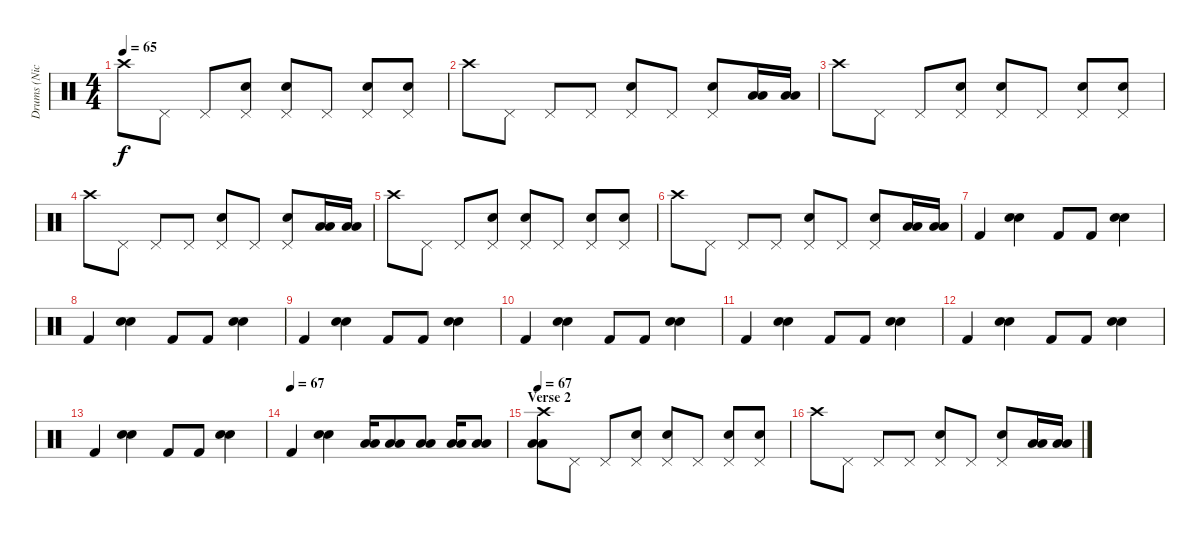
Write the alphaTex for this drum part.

\track ("Drums (Nick)" "Drums (Nic") {instrument percussion}
\staff {score}
\articulation defaults
\ts (4 4)
\tempo 65
\clef neutral
\ks c "Crash high (hit)".8{dy f} "Pedal Hi-Hat (hit)".8 "Pedal Hi-Hat (hit)".8
("Pedal Hi-Hat (hit)" "Electric Snare (hit)").8 ("Pedal Hi-Hat (hit)" "Electric Snare (hit)").8 "Pedal Hi-Hat (hit)".8 ("Pedal Hi-Hat (hit)" "Electric Snare (hit)").8 ("Pedal Hi-Hat (hit)" "Electric Snare (hit)").8 |
"Crash high (hit)".8 "Pedal Hi-Hat (hit)".8 "Pedal Hi-Hat (hit)".8 "Pedal Hi-Hat (hit)".8 ("Pedal Hi-Hat (hit)" "Electric Snare (hit)").8 "Pedal Hi-Hat (hit)".8 ("Pedal Hi-Hat (hit)" "Electric Snare (hit)").8 ("Low Tom (hit)" "Low Tom (hit)").16 ("Low Tom (hit)" "Low Tom (hit)").16 |
"Crash high (hit)".8 "Pedal Hi-Hat (hit)".8 "Pedal Hi-Hat (hit)".8 ("Pedal Hi-Hat (hit)" "Electric Snare (hit)").8 ("Pedal Hi-Hat (hit)" "Electric Snare (hit)").8 "Pedal Hi-Hat (hit)".8 ("Pedal Hi-Hat (hit)" "Electric Snare (hit)").8 ("Pedal Hi-Hat (hit)" "Electric Snare (hit)").8 |
"Crash high (hit)".8 "Pedal Hi-Hat (hit)".8 "Pedal Hi-Hat (hit)".8 "Pedal Hi-Hat (hit)".8 ("Pedal Hi-Hat (hit)" "Electric Snare (hit)").8 "Pedal Hi-Hat (hit)".8 ("Pedal Hi-Hat (hit)" "Electric Snare (hit)").8 ("Low Tom (hit)" "Low Tom (hit)").16 ("Low Tom (hit)" "Low Tom (hit)").16 |
"Crash high (hit)".8 "Pedal Hi-Hat (hit)".8 "Pedal Hi-Hat (hit)".8 ("Pedal Hi-Hat (hit)" "Electric Snare (hit)").8 ("Pedal Hi-Hat (hit)" "Electric Snare (hit)").8 "Pedal Hi-Hat (hit)".8 ("Pedal Hi-Hat (hit)" "Electric Snare (hit)").8 ("Pedal Hi-Hat (hit)" "Electric Snare (hit)").8 |
"Crash high (hit)".8 "Pedal Hi-Hat (hit)".8 "Pedal Hi-Hat (hit)".8 "Pedal Hi-Hat (hit)".8 ("Pedal Hi-Hat (hit)" "Electric Snare (hit)").8 "Pedal Hi-Hat (hit)".8 ("Pedal Hi-Hat (hit)" "Electric Snare (hit)").8 ("Low Tom (hit)" "Low Tom (hit)").16 ("Low Tom (hit)" "Low Tom (hit)").16 |
"Kick (hit) 2".4 ("Snare (hit) 2" "Electric Snare (hit)").4 "Kick (hit) 2".8 "Kick (hit) 2".8 ("Snare (hit) 2" "Electric Snare (hit)").4 |
"Kick (hit) 2".4 ("Snare (hit) 2" "Electric Snare (hit)").4 "Kick (hit) 2".8 "Kick (hit) 2".8 ("Snare (hit) 2" "Electric Snare (hit)").4 |
"Kick (hit) 2".4 ("Snare (hit) 2" "Electric Snare (hit)").4 "Kick (hit) 2".8 "Kick (hit) 2".8 ("Snare (hit) 2" "Electric Snare (hit)").4 |
"Kick (hit) 2".4 ("Snare (hit) 2" "Electric Snare (hit)").4 "Kick (hit) 2".8 "Kick (hit) 2".8 ("Snare (hit) 2" "Electric Snare (hit)").4 |
"Kick (hit) 2".4 ("Snare (hit) 2" "Electric Snare (hit)").4 "Kick (hit) 2".8 "Kick (hit) 2".8 ("Snare (hit) 2" "Electric Snare (hit)").4 |
"Kick (hit) 2".4 ("Snare (hit) 2" "Electric Snare (hit)").4 "Kick (hit) 2".8 "Kick (hit) 2".8 ("Snare (hit) 2" "Electric Snare (hit)").4 |
"Kick (hit) 2".4 ("Snare (hit) 2" "Electric Snare (hit)").4 "Kick (hit) 2".8 "Kick (hit) 2".8 ("Snare (hit) 2" "Electric Snare (hit)").4 |
\tempo (67)
"Kick (hit) 2".4 ("Snare (hit) 2" "Electric Snare (hit)").4 ("Low Tom (hit)" "Low Tom (hit)").16 ("Low Floor Tom (hit)" "Low Floor Tom (hit)").8 ("Low Floor Tom (hit)" "Low Floor Tom (hit)").8 ("Low Tom (hit)" "Low Tom (hit)").16 ("Low Floor Tom (hit)" "Low Floor Tom (hit)").8 |
\section ("" "Verse 2")
\tempo 67
("Crash high (hit)" "Low Tom (hit)" "Low Floor Tom (hit)").8 "Pedal Hi-Hat (hit)".8 "Pedal Hi-Hat (hit)".8 ("Pedal Hi-Hat (hit)" "Electric Snare (hit)").8 ("Pedal Hi-Hat (hit)" "Electric Snare (hit)").8 "Pedal Hi-Hat (hit)".8 ("Pedal Hi-Hat (hit)" "Electric Snare (hit)").8 ("Pedal Hi-Hat (hit)" "Electric Snare (hit)").8 |
"Crash high (hit)".8 "Pedal Hi-Hat (hit)".8 "Pedal Hi-Hat (hit)".8 "Pedal Hi-Hat (hit)".8 ("Pedal Hi-Hat (hit)" "Electric Snare (hit)").8 "Pedal Hi-Hat (hit)".8 ("Pedal Hi-Hat (hit)" "Electric Snare (hit)").8 ("Low Tom (hit)" "Low Tom (hit)").16 ("Low Tom (hit)" "Low Tom (hit)").16
